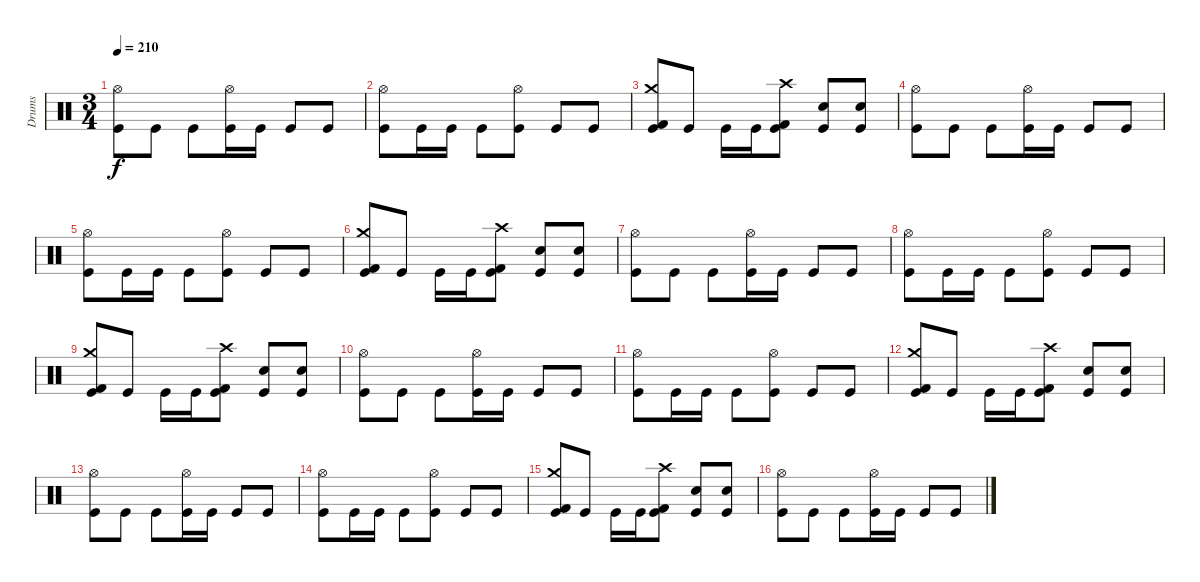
\track ("Drums" "Drums") {instrument percussion}
\staff {score}
\articulation defaults
\ts (3 4)
\tempo 210
\clef neutral
\ks c
("Hi-Hat (open)" "Kick (hit)").8{dy f} "Kick (hit)".8 "Kick (hit)".8 ("Hi-Hat (open)" "Kick (hit)").16 "Kick (hit)".16 "Kick (hit)".8 "Kick (hit)".8 |
("Hi-Hat (open)" "Kick (hit)").8 "Kick (hit)".16 "Kick (hit)".16 "Kick (hit)".8 ("Hi-Hat (open)" "Kick (hit)").8 "Kick (hit)".8 "Kick (hit)".8 |
("Crash medium (hit)" "Kick (hit)" "Kick (hit) 2").8 "Kick (hit)".8 "Kick (hit)".16 "Kick (hit)".16 ("Crash high (hit)" "Kick (hit)" "Kick (hit) 2").8 ("Kick (hit)" "Electric Snare (hit)").8 ("Kick (hit)" "Electric Snare (hit)").8 |
("Hi-Hat (open)" "Kick (hit)").8 "Kick (hit)".8 "Kick (hit)".8 ("Hi-Hat (open)" "Kick (hit)").16 "Kick (hit)".16 "Kick (hit)".8 "Kick (hit)".8 |
("Hi-Hat (open)" "Kick (hit)").8 "Kick (hit)".16 "Kick (hit)".16 "Kick (hit)".8 ("Hi-Hat (open)" "Kick (hit)").8 "Kick (hit)".8 "Kick (hit)".8 |
("Crash medium (hit)" "Kick (hit)" "Kick (hit) 2").8 "Kick (hit)".8 "Kick (hit)".16 "Kick (hit)".16 ("Crash high (hit)" "Kick (hit)" "Kick (hit) 2").8 ("Kick (hit)" "Electric Snare (hit)").8 ("Kick (hit)" "Electric Snare (hit)").8 |
("Hi-Hat (open)" "Kick (hit)").8 "Kick (hit)".8 "Kick (hit)".8 ("Hi-Hat (open)" "Kick (hit)").16 "Kick (hit)".16 "Kick (hit)".8 "Kick (hit)".8 |
("Hi-Hat (open)" "Kick (hit)").8 "Kick (hit)".16 "Kick (hit)".16 "Kick (hit)".8 ("Hi-Hat (open)" "Kick (hit)").8 "Kick (hit)".8 "Kick (hit)".8 |
("Crash medium (hit)" "Kick (hit)" "Kick (hit) 2").8 "Kick (hit)".8 "Kick (hit)".16 "Kick (hit)".16 ("Crash high (hit)" "Kick (hit)" "Kick (hit) 2").8 ("Kick (hit)" "Electric Snare (hit)").8 ("Kick (hit)" "Electric Snare (hit)").8 |
("Hi-Hat (open)" "Kick (hit)").8 "Kick (hit)".8 "Kick (hit)".8 ("Hi-Hat (open)" "Kick (hit)").16 "Kick (hit)".16 "Kick (hit)".8 "Kick (hit)".8 |
("Hi-Hat (open)" "Kick (hit)").8 "Kick (hit)".16 "Kick (hit)".16 "Kick (hit)".8 ("Hi-Hat (open)" "Kick (hit)").8 "Kick (hit)".8 "Kick (hit)".8 |
("Crash medium (hit)" "Kick (hit)" "Kick (hit) 2").8 "Kick (hit)".8 "Kick (hit)".16 "Kick (hit)".16 ("Crash high (hit)" "Kick (hit)" "Kick (hit) 2").8 ("Kick (hit)" "Electric Snare (hit)").8 ("Kick (hit)" "Electric Snare (hit)").8 |
("Hi-Hat (open)" "Kick (hit)").8 "Kick (hit)".8 "Kick (hit)".8 ("Hi-Hat (open)" "Kick (hit)").16 "Kick (hit)".16 "Kick (hit)".8 "Kick (hit)".8 |
("Hi-Hat (open)" "Kick (hit)").8 "Kick (hit)".16 "Kick (hit)".16 "Kick (hit)".8 ("Hi-Hat (open)" "Kick (hit)").8 "Kick (hit)".8 "Kick (hit)".8 |
("Crash medium (hit)" "Kick (hit)" "Kick (hit) 2").8 "Kick (hit)".8 "Kick (hit)".16 "Kick (hit)".16 ("Crash high (hit)" "Kick (hit)" "Kick (hit) 2").8 ("Kick (hit)" "Electric Snare (hit)").8 ("Kick (hit)" "Electric Snare (hit)").8 |
("Hi-Hat (open)" "Kick (hit)").8 "Kick (hit)".8 "Kick (hit)".8 ("Hi-Hat (open)" "Kick (hit)").16 "Kick (hit)".16 "Kick (hit)".8 "Kick (hit)".8
